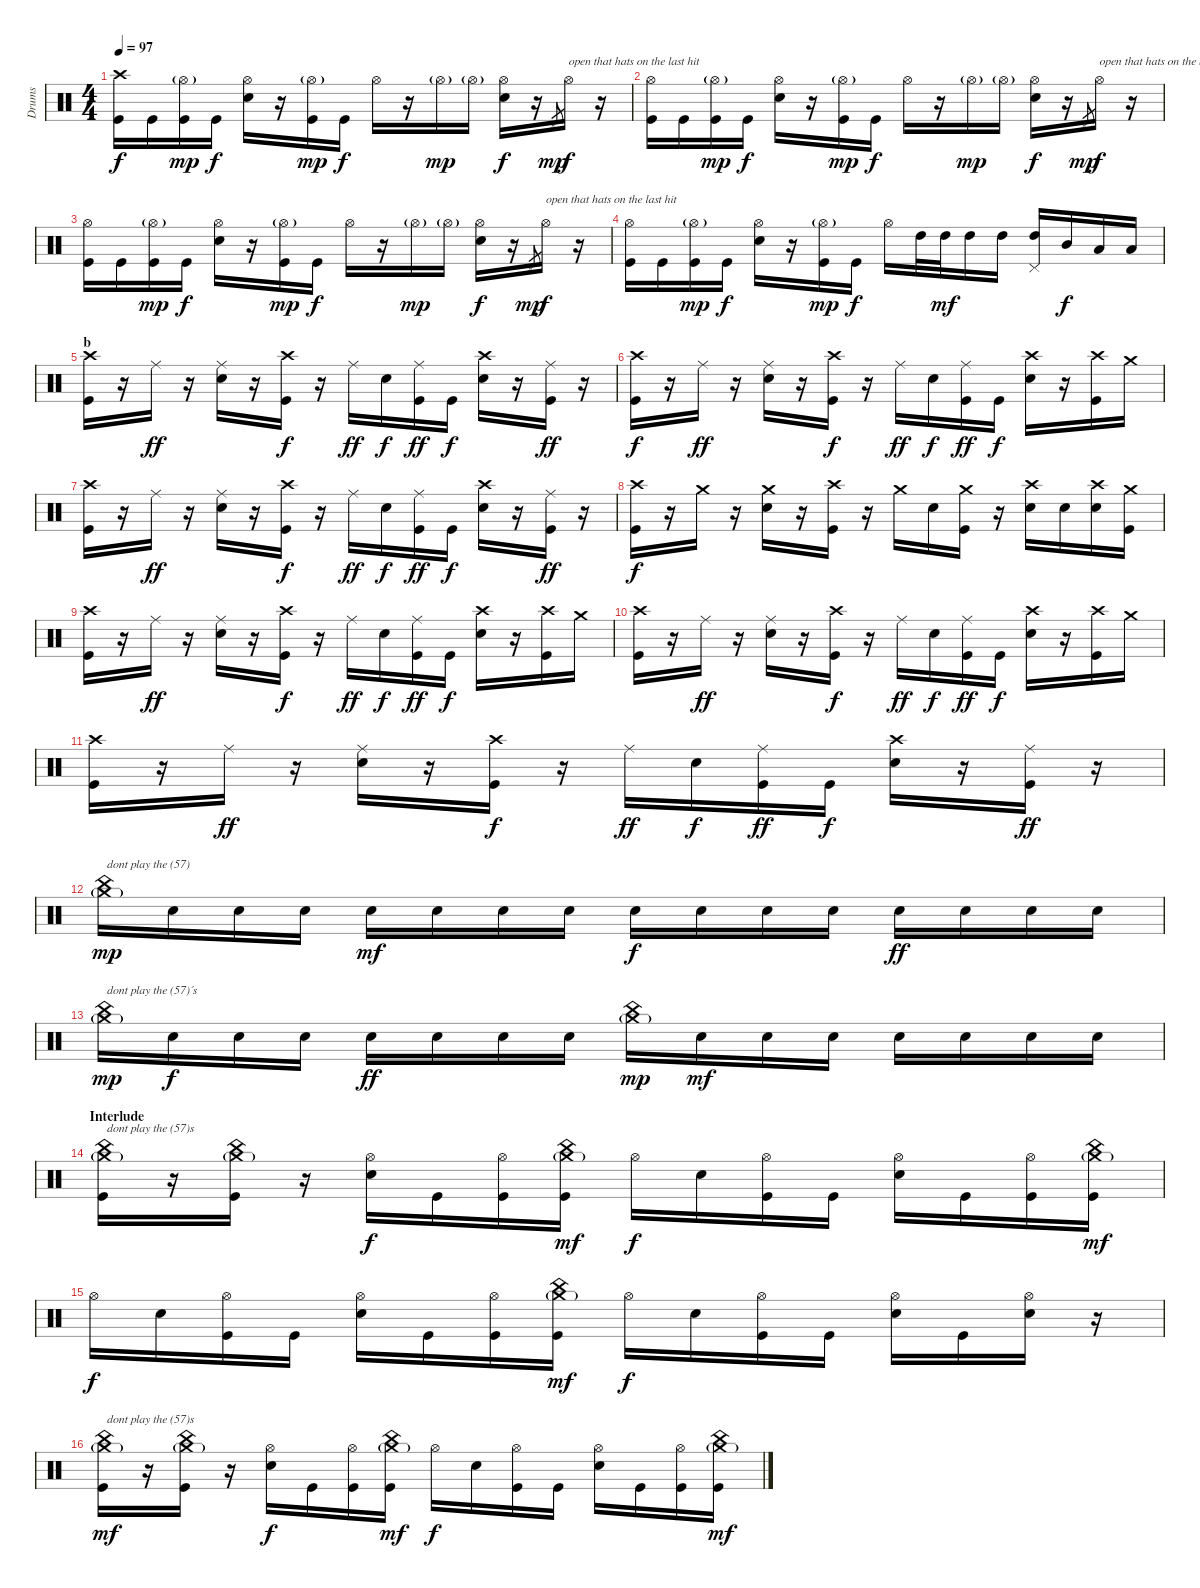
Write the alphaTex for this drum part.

\track ("Drums" "Drums") {instrument percussion}
\staff {score}
\articulation defaults
\ts (4 4)
\tempo 97
\clef neutral
\ks c
("Crash high (hit)" "Kick (hit)").16{dy f} "Kick (hit)".16 ("Hi-Hat (open)"{g} "Kick (hit)").16{dy mp} "Kick (hit)".16{dy f} ("Hi-Hat (open)" "Electric Snare (hit)").16 r.16 ("Hi-Hat (open)"{g} "Kick (hit)").16{dy mp} "Kick (hit)".16{dy f} "Hi-Hat (open)".16 r.16 "Hi-Hat (open)"{g}.16{dy mp} "Hi-Hat (open)"{g}.16 ("Hi-Hat (open)" "Electric Snare (hit)").16{dy f} r.16 "Pedal Hi-Hat (hit)".8{gr dy mp} "Hi-Hat (open)".16{txt "open that hats on the last hit" dy f} r.16 |
("Hi-Hat (open)" "Kick (hit)").16 "Kick (hit)".16 ("Hi-Hat (open)"{g} "Kick (hit)").16{dy mp} "Kick (hit)".16{dy f} ("Hi-Hat (open)" "Electric Snare (hit)").16 r.16 ("Hi-Hat (open)"{g} "Kick (hit)").16{dy mp} "Kick (hit)".16{dy f} "Hi-Hat (open)".16 r.16 "Hi-Hat (open)"{g}.16{dy mp} "Hi-Hat (open)"{g}.16 ("Hi-Hat (open)" "Electric Snare (hit)").16{dy f} r.16 "Pedal Hi-Hat (hit)".8{gr dy mp} "Hi-Hat (open)".16{txt "open that hats on the last hit" dy f} r.16 |
("Hi-Hat (open)" "Kick (hit)").16 "Kick (hit)".16 ("Hi-Hat (open)"{g} "Kick (hit)").16{dy mp} "Kick (hit)".16{dy f} ("Hi-Hat (open)" "Electric Snare (hit)").16 r.16 ("Hi-Hat (open)"{g} "Kick (hit)").16{dy mp} "Kick (hit)".16{dy f} "Hi-Hat (open)".16 r.16 "Hi-Hat (open)"{g}.16{dy mp} "Hi-Hat (open)"{g}.16 ("Hi-Hat (open)" "Electric Snare (hit)").16{dy f} r.16 "Pedal Hi-Hat (hit)".8{gr dy mp} "Hi-Hat (open)".16{txt "open that hats on the last hit" dy f} r.16 |
("Hi-Hat (open)" "Kick (hit)").16 "Kick (hit)".16 ("Hi-Hat (open)"{g} "Kick (hit)").16{dy mp} "Kick (hit)".16{dy f} ("Hi-Hat (open)" "Electric Snare (hit)").16 r.16 ("Hi-Hat (open)"{g} "Kick (hit)").16{dy mp} "Kick (hit)".16{dy f} "Hi-Hat (open)".16 "High Tom (hit)".32 "High Tom (hit)".32{dy mf} "High Tom (hit)".16 "High Tom (hit)".16 ("Pedal Hi-Hat (hit)" "High Tom (hit)").16 "Mid Tom (hit)".16{dy f} "Low Tom (hit)".16 "Low Tom (hit)".16 |
\section ("" "b")
("Crash high (hit)" "Kick (hit)").16 r.16 "Ride (middle)".16{dy ff} r.16 ("Ride (middle)" "Electric Snare (hit)").16 r.16 ("Crash high (hit)" "Kick (hit)").16{dy f} r.16 "Ride (middle)".16{dy ff} "Electric Snare (hit)".16{dy f} ("Ride (middle)" "Kick (hit)").16{dy ff} "Kick (hit)".16{dy f} ("Crash high (hit)" "Electric Snare (hit)").16 r.16 ("Ride (middle)" "Kick (hit)").16{dy ff} r.16 |
("Crash high (hit)" "Kick (hit)").16{dy f} r.16 "Ride (middle)".16{dy ff} r.16 ("Ride (middle)" "Electric Snare (hit)").16 r.16 ("Crash high (hit)" "Kick (hit)").16{dy f} r.16 "Ride (middle)".16{dy ff} "Electric Snare (hit)".16{dy f} ("Ride (middle)" "Kick (hit)").16{dy ff} "Kick (hit)".16{dy f} ("Crash high (hit)" "Electric Snare (hit)").16 r.16 ("Crash high (hit)" "Kick (hit)").16 "Crash medium (hit)".16 |
("Crash high (hit)" "Kick (hit)").16 r.16 "Ride (middle)".16{dy ff} r.16 ("Ride (middle)" "Electric Snare (hit)").16 r.16 ("Crash high (hit)" "Kick (hit)").16{dy f} r.16 "Ride (middle)".16{dy ff} "Electric Snare (hit)".16{dy f} ("Ride (middle)" "Kick (hit)").16{dy ff} "Kick (hit)".16{dy f} ("Crash high (hit)" "Electric Snare (hit)").16 r.16 ("Ride (middle)" "Kick (hit)").16{dy ff} r.16 |
("Crash high (hit)" "Kick (hit)").16{dy f} r.16 "Crash medium (hit)".16 r.16 ("Crash medium (hit)" "Electric Snare (hit)").16 r.16 ("Crash high (hit)" "Kick (hit)").16 r.16 "Crash medium (hit)".16 "Electric Snare (hit)".16 ("Crash medium (hit)" "Kick (hit)").16 r.16 ("Crash high (hit)" "Electric Snare (hit)").16 "Electric Snare (hit)".16 ("Crash high (hit)" "Electric Snare (hit)").16 ("Crash medium (hit)" "Kick (hit)").16 |
("Crash high (hit)" "Kick (hit)").16 r.16 "Ride (middle)".16{dy ff} r.16 ("Ride (middle)" "Electric Snare (hit)").16 r.16 ("Crash high (hit)" "Kick (hit)").16{dy f} r.16 "Ride (middle)".16{dy ff} "Electric Snare (hit)".16{dy f} ("Ride (middle)" "Kick (hit)").16{dy ff} "Kick (hit)".16{dy f} ("Crash high (hit)" "Electric Snare (hit)").16 r.16 ("Crash high (hit)" "Kick (hit)").16 "Crash medium (hit)".16 |
("Crash high (hit)" "Kick (hit)").16 r.16 "Ride (middle)".16{dy ff} r.16 ("Ride (middle)" "Electric Snare (hit)").16 r.16 ("Crash high (hit)" "Kick (hit)").16{dy f} r.16 "Ride (middle)".16{dy ff} "Electric Snare (hit)".16{dy f} ("Ride (middle)" "Kick (hit)").16{dy ff} "Kick (hit)".16{dy f} ("Crash high (hit)" "Electric Snare (hit)").16 r.16 ("Crash high (hit)" "Kick (hit)").16 "Crash medium (hit)".16 |
("Crash high (hit)" "Kick (hit)").16 r.16 "Ride (middle)".16{dy ff} r.16 ("Ride (middle)" "Electric Snare (hit)").16 r.16 ("Crash high (hit)" "Kick (hit)").16{dy f} r.16 "Ride (middle)".16{dy ff} "Electric Snare (hit)".16{dy f} ("Ride (middle)" "Kick (hit)").16{dy ff} "Kick (hit)".16{dy f} ("Crash high (hit)" "Electric Snare (hit)").16 r.16 ("Ride (middle)" "Kick (hit)").16{dy ff} r.16 |
("China (hit)" "Crash medium (hit)"{g}).16{txt "dont play the (57)" dy mp} "Electric Snare (hit)".16 "Electric Snare (hit)".16 "Electric Snare (hit)".16 "Electric Snare (hit)".16{dy mf} "Electric Snare (hit)".16 "Electric Snare (hit)".16 "Electric Snare (hit)".16 "Electric Snare (hit)".16{dy f} "Electric Snare (hit)".16 "Electric Snare (hit)".16 "Electric Snare (hit)".16 "Electric Snare (hit)".16{dy ff} "Electric Snare (hit)".16 "Electric Snare (hit)".16 "Electric Snare (hit)".16 |
("China (hit)" "Crash medium (hit)"{g}).16{txt "dont play the (57)´s" dy mp} "Electric Snare (hit)".16{dy f} "Electric Snare (hit)".16 "Electric Snare (hit)".16 "Electric Snare (hit)".16{dy ff} "Electric Snare (hit)".16 "Electric Snare (hit)".16 "Electric Snare (hit)".16 ("China (hit)" "Crash medium (hit)"{g}).16{dy mp} "Electric Snare (hit)".16{dy mf} "Electric Snare (hit)".16 "Electric Snare (hit)".16 "Electric Snare (hit)".16 "Electric Snare (hit)".16 "Electric Snare (hit)".16 "Electric Snare (hit)".16 |
\section ("" "Interlude")
("China (hit)" "Crash medium (hit)"{g} "Kick (hit)").16{txt "dont play the (57)s"} r.16 ("China (hit)" "Crash medium (hit)"{g} "Kick (hit)").16 r.16 ("Hi-Hat (open)" "Electric Snare (hit)").16{dy f} "Kick (hit)".16 ("Hi-Hat (open)" "Kick (hit)").16 ("China (hit)" "Crash medium (hit)"{g} "Kick (hit)").16{dy mf} "Hi-Hat (open)".16{dy f} "Electric Snare (hit)".16 ("Hi-Hat (open)" "Kick (hit)").16 "Kick (hit)".16 ("Hi-Hat (open)" "Electric Snare (hit)").16 "Kick (hit)".16 ("Hi-Hat (open)" "Kick (hit)").16 ("China (hit)" "Crash medium (hit)"{g} "Kick (hit)").16{dy mf} |
"Hi-Hat (open)".16{dy f} "Electric Snare (hit)".16 ("Hi-Hat (open)" "Kick (hit)").16 "Kick (hit)".16 ("Hi-Hat (open)" "Electric Snare (hit)").16 "Kick (hit)".16 ("Hi-Hat (open)" "Kick (hit)").16 ("China (hit)" "Crash medium (hit)"{g} "Kick (hit)").16{dy mf} "Hi-Hat (open)".16{dy f} "Electric Snare (hit)".16 ("Hi-Hat (open)" "Kick (hit)").16 "Kick (hit)".16 ("Hi-Hat (open)" "Electric Snare (hit)").16 "Kick (hit)".16 ("Hi-Hat (open)" "Electric Snare (hit)").16 r.16 |
("China (hit)" "Crash medium (hit)"{g} "Kick (hit)").16{txt "dont play the (57)s" dy mf} r.16 ("China (hit)" "Crash medium (hit)"{g} "Kick (hit)").16 r.16 ("Hi-Hat (open)" "Electric Snare (hit)").16{dy f} "Kick (hit)".16 ("Hi-Hat (open)" "Kick (hit)").16 ("China (hit)" "Crash medium (hit)"{g} "Kick (hit)").16{dy mf} "Hi-Hat (open)".16{dy f} "Electric Snare (hit)".16 ("Hi-Hat (open)" "Kick (hit)").16 "Kick (hit)".16 ("Hi-Hat (open)" "Electric Snare (hit)").16 "Kick (hit)".16 ("Hi-Hat (open)" "Kick (hit)").16 ("China (hit)" "Crash medium (hit)"{g} "Kick (hit)").16{dy mf}
